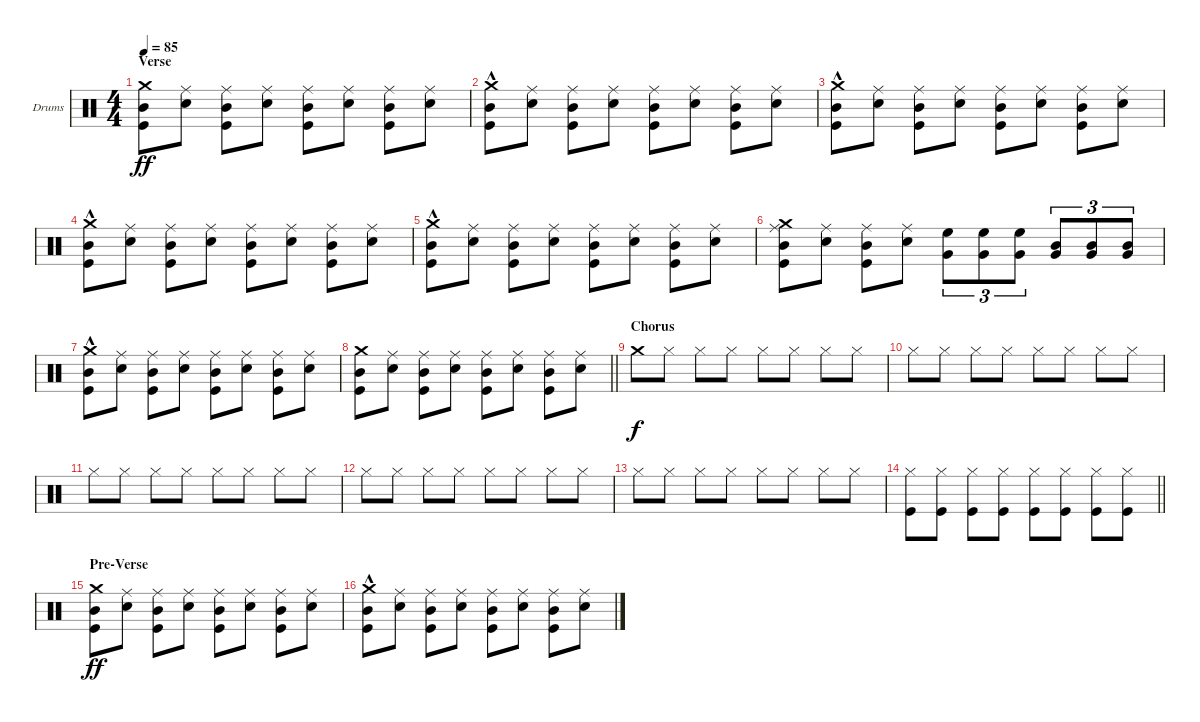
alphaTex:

\bracketExtendMode groupsimilarinstruments
\firstSystemTrackNameOrientation horizontal
\otherSystemsTrackNameOrientation horizontal
\track ("Drumkit" "Drums") {instrument percussion}
\staff {score}
\articulation defaults
\ts (4 4)
\section ("" "Verse")
\tempo 85
\clef neutral
\ks c
("Crash medium (hit)" "Kick (hit)" "Mid Tom (hit)").8{dy ff} ("Ride (middle)" "Snare (hit) 2").8 ("Ride (middle)" "Kick (hit)" "Mid Tom (hit)").8 ("Ride (middle)" "Snare (hit) 2").8 ("Ride (middle)" "Kick (hit)" "Mid Tom (hit)").8 ("Ride (middle)" "Snare (hit) 2").8 ("Ride (middle)" "Kick (hit)" "Mid Tom (hit)").8 ("Ride (middle)" "Snare (hit) 2").8 |
("Crash medium (hit)"{hac} "Kick (hit)" "Mid Tom (hit)").8 ("Ride (middle)" "Snare (hit) 2").8 ("Ride (middle)" "Kick (hit)" "Mid Tom (hit)").8 ("Ride (middle)" "Snare (hit) 2").8 ("Ride (middle)" "Kick (hit)" "Mid Tom (hit)").8 ("Ride (middle)" "Snare (hit) 2").8 ("Ride (middle)" "Kick (hit)" "Mid Tom (hit)").8 ("Ride (middle)" "Snare (hit) 2").8 |
("Crash medium (hit)"{hac} "Kick (hit)" "Mid Tom (hit)").8 ("Ride (middle)" "Snare (hit) 2").8 ("Ride (middle)" "Kick (hit)" "Mid Tom (hit)").8 ("Ride (middle)" "Snare (hit) 2").8 ("Ride (middle)" "Kick (hit)" "Mid Tom (hit)").8 ("Ride (middle)" "Snare (hit) 2").8 ("Ride (middle)" "Kick (hit)" "Mid Tom (hit)").8 ("Ride (middle)" "Snare (hit) 2").8 |
("Crash medium (hit)"{hac} "Kick (hit)" "Mid Tom (hit)").8 ("Ride (middle)" "Snare (hit) 2").8 ("Ride (middle)" "Kick (hit)" "Mid Tom (hit)").8 ("Ride (middle)" "Snare (hit) 2").8 ("Ride (middle)" "Kick (hit)" "Mid Tom (hit)").8 ("Ride (middle)" "Snare (hit) 2").8 ("Ride (middle)" "Kick (hit)" "Mid Tom (hit)").8 ("Ride (middle)" "Snare (hit) 2").8 |
("Crash medium (hit)"{hac} "Kick (hit)" "Mid Tom (hit)").8 ("Ride (middle)" "Snare (hit) 2").8 ("Ride (middle)" "Kick (hit)" "Mid Tom (hit)").8 ("Ride (middle)" "Snare (hit) 2").8 ("Ride (middle)" "Kick (hit)" "Mid Tom (hit)").8 ("Ride (middle)" "Snare (hit) 2").8 ("Ride (middle)" "Kick (hit)" "Mid Tom (hit)").8 ("Ride (middle)" "Snare (hit) 2").8 |
("Ride (middle)" "Kick (hit)" "Mid Tom (hit)" "Crash medium (hit)").8 ("Ride (middle)" "Snare (hit) 2").8 ("Ride (middle)" "Kick (hit)" "Mid Tom (hit)").8 ("Ride (middle)" "Snare (hit) 2").8 ("High Floor Tom (hit)" "Very Low Tom (hit)").8{tu (3 2)} ("High Floor Tom (hit)" "Very Low Tom (hit)").8{tu (3 2)} ("High Floor Tom (hit)" "Very Low Tom (hit)").8{tu (3 2)} ("Mid Tom (hit)" "Very Low Tom (hit)").8{tu (3 2)} ("Mid Tom (hit)" "Very Low Tom (hit)").8{tu (3 2)} ("Mid Tom (hit)" "Very Low Tom (hit)").8{tu (3 2)} |
("Crash medium (hit)"{hac} "Kick (hit)" "Mid Tom (hit)").8 ("Ride (middle)" "Snare (hit) 2").8 ("Ride (middle)" "Kick (hit)" "Mid Tom (hit)").8 ("Ride (middle)" "Snare (hit) 2").8 ("Ride (middle)" "Kick (hit)" "Mid Tom (hit)").8 ("Ride (middle)" "Snare (hit) 2").8 ("Ride (middle)" "Kick (hit)" "Mid Tom (hit)").8 ("Ride (middle)" "Snare (hit) 2").8 |
\barLineRight lightlight
("Crash medium (hit)" "Kick (hit)" "Mid Tom (hit)").8 ("Ride (middle)" "Snare (hit) 2").8 ("Ride (middle)" "Kick (hit)" "Mid Tom (hit)").8 ("Ride (middle)" "Snare (hit) 2").8 ("Ride (middle)" "Kick (hit)" "Mid Tom (hit)").8 ("Ride (middle)" "Snare (hit) 2").8 ("Ride (middle)" "Kick (hit)" "Mid Tom (hit)").8 ("Ride (middle)" "Snare (hit) 2").8 |
\section ("" "Chorus")
"Crash medium (hit)".8{dy f} "Hi-Hat (closed)".8 "Hi-Hat (closed)".8 "Hi-Hat (closed)".8 "Hi-Hat (closed)".8 "Hi-Hat (closed)".8 "Hi-Hat (closed)".8 "Hi-Hat (closed)".8 |
"Hi-Hat (closed)".8 "Hi-Hat (closed)".8 "Hi-Hat (closed)".8 "Hi-Hat (closed)".8 "Hi-Hat (closed)".8 "Hi-Hat (closed)".8 "Hi-Hat (closed)".8 "Hi-Hat (closed)".8 |
"Hi-Hat (closed)".8 "Hi-Hat (closed)".8 "Hi-Hat (closed)".8 "Hi-Hat (closed)".8 "Hi-Hat (closed)".8 "Hi-Hat (closed)".8 "Hi-Hat (closed)".8 "Hi-Hat (closed)".8 |
"Hi-Hat (closed)".8 "Hi-Hat (closed)".8 "Hi-Hat (closed)".8 "Hi-Hat (closed)".8 "Hi-Hat (closed)".8 "Hi-Hat (closed)".8 "Hi-Hat (closed)".8 "Hi-Hat (closed)".8 |
"Hi-Hat (closed)".8 "Hi-Hat (closed)".8 "Hi-Hat (closed)".8 "Hi-Hat (closed)".8 "Hi-Hat (closed)".8 "Hi-Hat (closed)".8 "Hi-Hat (closed)".8 "Hi-Hat (closed)".8 |
\barLineRight lightlight
("Hi-Hat (closed)" "Kick (hit)").8 ("Hi-Hat (closed)" "Kick (hit)").8 ("Hi-Hat (closed)" "Kick (hit)").8 ("Hi-Hat (closed)" "Kick (hit)").8 ("Hi-Hat (closed)" "Kick (hit)").8 ("Hi-Hat (closed)" "Kick (hit)").8 ("Hi-Hat (closed)" "Kick (hit)").8 ("Hi-Hat (closed)" "Kick (hit)").8 |
\section ("" "Pre-Verse")
("Crash medium (hit)" "Kick (hit)" "Mid Tom (hit)").8{dy ff} ("Ride (middle)" "Snare (hit) 2").8 ("Ride (middle)" "Kick (hit)" "Mid Tom (hit)").8 ("Ride (middle)" "Snare (hit) 2").8 ("Ride (middle)" "Kick (hit)" "Mid Tom (hit)").8 ("Ride (middle)" "Snare (hit) 2").8 ("Ride (middle)" "Kick (hit)" "Mid Tom (hit)").8 ("Ride (middle)" "Snare (hit) 2").8 |
("Crash medium (hit)"{hac} "Kick (hit)" "Mid Tom (hit)").8 ("Ride (middle)" "Snare (hit) 2").8 ("Ride (middle)" "Kick (hit)" "Mid Tom (hit)").8 ("Ride (middle)" "Snare (hit) 2").8 ("Ride (middle)" "Kick (hit)" "Mid Tom (hit)").8 ("Ride (middle)" "Snare (hit) 2").8 ("Ride (middle)" "Kick (hit)" "Mid Tom (hit)").8 ("Ride (middle)" "Snare (hit) 2").8
